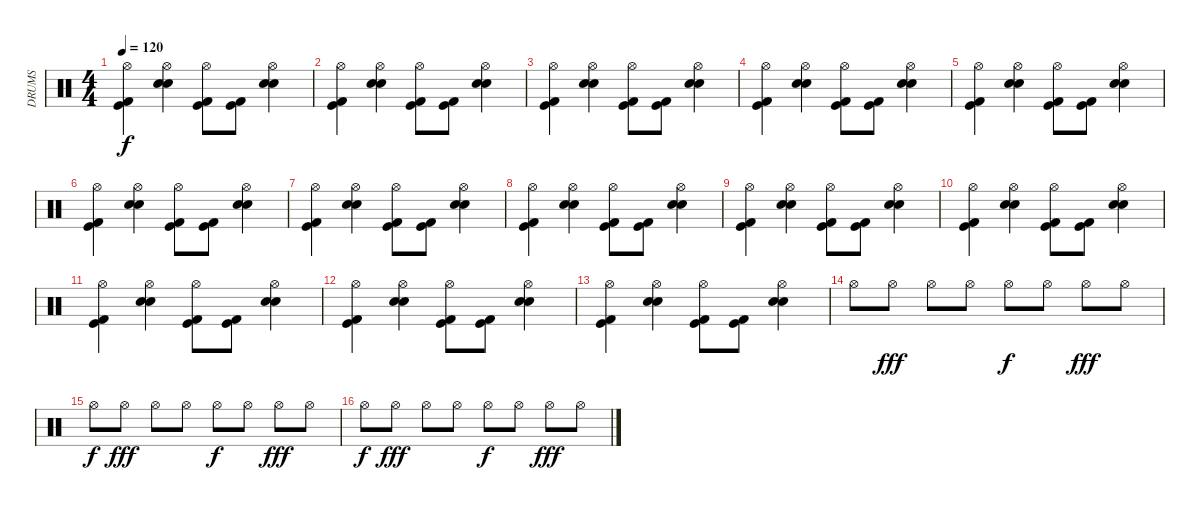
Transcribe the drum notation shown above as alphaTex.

\track ("DRUMS" "DRUMS") {instrument percussion}
\staff {score}
\articulation defaults
\ts (4 4)
\tempo 120
\clef neutral
\ks c
("Kick (hit)" "Kick (hit) 2" "Hi-Hat (open)").4{dy f} ("Snare (hit) 2" "Electric Snare (hit)" "Hi-Hat (open)").4 ("Kick (hit)" "Kick (hit) 2" "Hi-Hat (open)").8 ("Kick (hit)" "Kick (hit) 2").8 ("Snare (hit) 2" "Electric Snare (hit)" "Hi-Hat (open)").4 |
("Kick (hit)" "Kick (hit) 2" "Hi-Hat (open)").4 ("Snare (hit) 2" "Electric Snare (hit)" "Hi-Hat (open)").4 ("Kick (hit)" "Kick (hit) 2" "Hi-Hat (open)").8 ("Kick (hit)" "Kick (hit) 2").8 ("Snare (hit) 2" "Electric Snare (hit)" "Hi-Hat (open)").4 |
("Kick (hit)" "Kick (hit) 2" "Hi-Hat (open)").4 ("Snare (hit) 2" "Electric Snare (hit)" "Hi-Hat (open)").4 ("Kick (hit)" "Kick (hit) 2" "Hi-Hat (open)").8 ("Kick (hit)" "Kick (hit) 2").8 ("Snare (hit) 2" "Electric Snare (hit)" "Hi-Hat (open)").4 |
("Kick (hit)" "Kick (hit) 2" "Hi-Hat (open)").4 ("Snare (hit) 2" "Electric Snare (hit)" "Hi-Hat (open)").4 ("Kick (hit)" "Kick (hit) 2" "Hi-Hat (open)").8 ("Kick (hit)" "Kick (hit) 2").8 ("Snare (hit) 2" "Electric Snare (hit)" "Hi-Hat (open)").4 |
("Kick (hit)" "Kick (hit) 2" "Hi-Hat (open)").4 ("Snare (hit) 2" "Electric Snare (hit)" "Hi-Hat (open)").4 ("Kick (hit)" "Kick (hit) 2" "Hi-Hat (open)").8 ("Kick (hit)" "Kick (hit) 2").8 ("Snare (hit) 2" "Electric Snare (hit)" "Hi-Hat (open)").4 |
("Kick (hit)" "Kick (hit) 2" "Hi-Hat (open)").4 ("Snare (hit) 2" "Electric Snare (hit)" "Hi-Hat (open)").4 ("Kick (hit)" "Kick (hit) 2" "Hi-Hat (open)").8 ("Kick (hit)" "Kick (hit) 2").8 ("Snare (hit) 2" "Electric Snare (hit)" "Hi-Hat (open)").4 |
("Kick (hit)" "Kick (hit) 2" "Hi-Hat (open)").4 ("Snare (hit) 2" "Electric Snare (hit)" "Hi-Hat (open)").4 ("Kick (hit)" "Kick (hit) 2" "Hi-Hat (open)").8 ("Kick (hit)" "Kick (hit) 2").8 ("Snare (hit) 2" "Electric Snare (hit)" "Hi-Hat (open)").4 |
("Kick (hit)" "Kick (hit) 2" "Hi-Hat (open)").4 ("Snare (hit) 2" "Electric Snare (hit)" "Hi-Hat (open)").4 ("Kick (hit)" "Kick (hit) 2" "Hi-Hat (open)").8 ("Kick (hit)" "Kick (hit) 2").8 ("Snare (hit) 2" "Electric Snare (hit)" "Hi-Hat (open)").4 |
("Kick (hit)" "Kick (hit) 2" "Hi-Hat (open)").4 ("Snare (hit) 2" "Electric Snare (hit)" "Hi-Hat (open)").4 ("Kick (hit)" "Kick (hit) 2" "Hi-Hat (open)").8 ("Kick (hit)" "Kick (hit) 2").8 ("Snare (hit) 2" "Electric Snare (hit)" "Hi-Hat (open)").4 |
("Kick (hit)" "Kick (hit) 2" "Hi-Hat (open)").4 ("Snare (hit) 2" "Electric Snare (hit)" "Hi-Hat (open)").4 ("Kick (hit)" "Kick (hit) 2" "Hi-Hat (open)").8 ("Kick (hit)" "Kick (hit) 2").8 ("Snare (hit) 2" "Electric Snare (hit)" "Hi-Hat (open)").4 |
("Kick (hit)" "Kick (hit) 2" "Hi-Hat (open)").4 ("Snare (hit) 2" "Electric Snare (hit)" "Hi-Hat (open)").4 ("Kick (hit)" "Kick (hit) 2" "Hi-Hat (open)").8 ("Kick (hit)" "Kick (hit) 2").8 ("Snare (hit) 2" "Electric Snare (hit)" "Hi-Hat (open)").4 |
("Kick (hit)" "Kick (hit) 2" "Hi-Hat (open)").4 ("Snare (hit) 2" "Electric Snare (hit)" "Hi-Hat (open)").4 ("Kick (hit)" "Kick (hit) 2" "Hi-Hat (open)").8 ("Kick (hit)" "Kick (hit) 2").8 ("Snare (hit) 2" "Electric Snare (hit)" "Hi-Hat (open)").4 |
("Kick (hit)" "Kick (hit) 2" "Hi-Hat (open)").4 ("Snare (hit) 2" "Electric Snare (hit)" "Hi-Hat (open)").4 ("Kick (hit)" "Kick (hit) 2" "Hi-Hat (open)").8 ("Kick (hit)" "Kick (hit) 2").8 ("Snare (hit) 2" "Electric Snare (hit)" "Hi-Hat (open)").4 |
"Hi-Hat (open)".8 "Hi-Hat (open)".8{dy fff} "Hi-Hat (open)".8 "Hi-Hat (open)".8 "Hi-Hat (open)".8{dy f} "Hi-Hat (open)".8 "Hi-Hat (open)".8{dy fff} "Hi-Hat (open)".8 |
"Hi-Hat (open)".8{dy f} "Hi-Hat (open)".8{dy fff} "Hi-Hat (open)".8 "Hi-Hat (open)".8 "Hi-Hat (open)".8{dy f} "Hi-Hat (open)".8 "Hi-Hat (open)".8{dy fff} "Hi-Hat (open)".8 |
"Hi-Hat (open)".8{dy f} "Hi-Hat (open)".8{dy fff} "Hi-Hat (open)".8 "Hi-Hat (open)".8 "Hi-Hat (open)".8{dy f} "Hi-Hat (open)".8 "Hi-Hat (open)".8{dy fff} "Hi-Hat (open)".8
